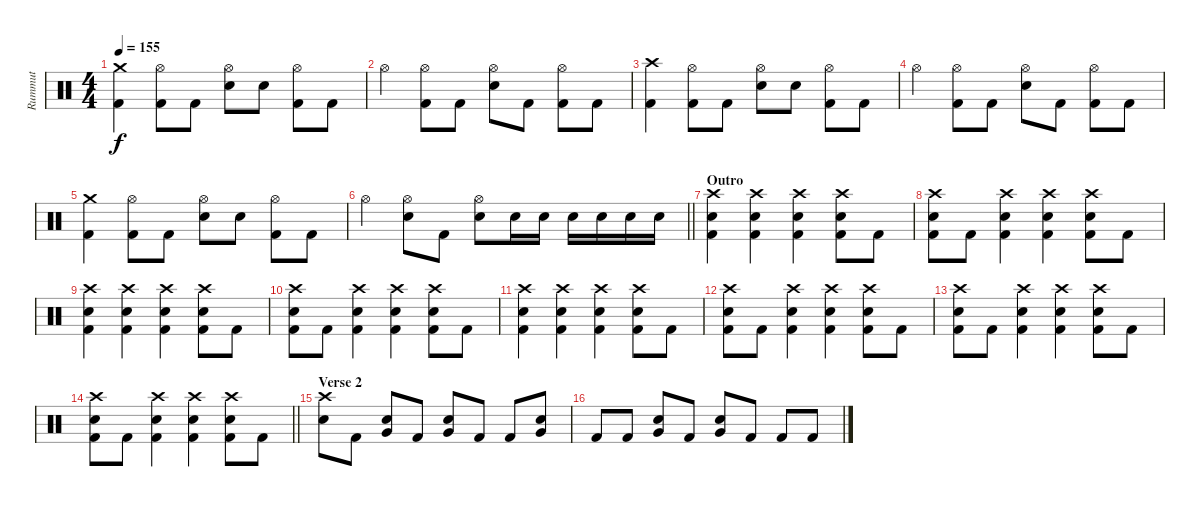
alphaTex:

\track ("Rummut" "Rummut") {instrument percussion}
\staff {score}
\articulation defaults
\ts (4 4)
\tempo 155
\clef neutral
\ks c
("Crash medium (hit)" "Kick (hit) 2").4{dy f} ("Hi-Hat (open)" "Kick (hit) 2").8 "Kick (hit) 2".8 ("Hi-Hat (open)" "Electric Snare (hit)").8 "Electric Snare (hit)".8 ("Hi-Hat (open)" "Kick (hit) 2").8 "Kick (hit) 2".8 |
"Hi-Hat (open)".4 ("Hi-Hat (open)" "Kick (hit) 2").8 "Kick (hit) 2".8 ("Hi-Hat (open)" "Electric Snare (hit)").8 "Kick (hit) 2".8 ("Hi-Hat (open)" "Kick (hit) 2").8 "Kick (hit) 2".8 |
("Crash high (hit)" "Kick (hit) 2").4 ("Hi-Hat (open)" "Kick (hit) 2").8 "Kick (hit) 2".8 ("Hi-Hat (open)" "Electric Snare (hit)").8 "Electric Snare (hit)".8 ("Hi-Hat (open)" "Kick (hit) 2").8 "Kick (hit) 2".8 |
"Hi-Hat (open)".4 ("Hi-Hat (open)" "Kick (hit) 2").8 "Kick (hit) 2".8 ("Hi-Hat (open)" "Electric Snare (hit)").8 "Kick (hit) 2".8 ("Hi-Hat (open)" "Kick (hit) 2").8 "Kick (hit) 2".8 |
("Crash medium (hit)" "Kick (hit) 2").4 ("Hi-Hat (open)" "Kick (hit) 2").8 "Kick (hit) 2".8 ("Hi-Hat (open)" "Electric Snare (hit)").8 "Electric Snare (hit)".8 ("Hi-Hat (open)" "Kick (hit) 2").8 "Kick (hit) 2".8 |
\barLineRight lightlight "Hi-Hat (open)".4
("Hi-Hat (open)" "Electric Snare (hit)").8 "Kick (hit) 2".8 ("Hi-Hat (open)" "Electric Snare (hit)").8 "Electric Snare (hit)".16 "Electric Snare (hit)".16 "Electric Snare (hit)".16 "Electric Snare (hit)".16 "Electric Snare (hit)".16 "Electric Snare (hit)".16 |
\section ("" "Outro")
("Crash high (hit)" "Electric Snare (hit)" "Kick (hit) 2").4 ("Crash high (hit)" "Electric Snare (hit)" "Kick (hit) 2").4 ("Crash high (hit)" "Electric Snare (hit)" "Kick (hit) 2").4 ("Crash high (hit)" "Electric Snare (hit)" "Kick (hit) 2").8 "Kick (hit) 2".8 |
("Crash high (hit)" "Electric Snare (hit)" "Kick (hit) 2").8 "Kick (hit) 2".8 ("Crash high (hit)" "Electric Snare (hit)" "Kick (hit) 2").4 ("Crash high (hit)" "Electric Snare (hit)" "Kick (hit) 2").4 ("Crash high (hit)" "Electric Snare (hit)" "Kick (hit) 2").8 "Kick (hit) 2".8 |
("Crash high (hit)" "Electric Snare (hit)" "Kick (hit) 2").4 ("Crash high (hit)" "Electric Snare (hit)" "Kick (hit) 2").4 ("Crash high (hit)" "Electric Snare (hit)" "Kick (hit) 2").4 ("Crash high (hit)" "Electric Snare (hit)" "Kick (hit) 2").8 "Kick (hit) 2".8 |
("Crash high (hit)" "Electric Snare (hit)" "Kick (hit) 2").8 "Kick (hit) 2".8 ("Crash high (hit)" "Electric Snare (hit)" "Kick (hit) 2").4 ("Crash high (hit)" "Electric Snare (hit)" "Kick (hit) 2").4 ("Crash high (hit)" "Electric Snare (hit)" "Kick (hit) 2").8 "Kick (hit) 2".8 |
("Crash high (hit)" "Electric Snare (hit)" "Kick (hit) 2").4 ("Crash high (hit)" "Electric Snare (hit)" "Kick (hit) 2").4 ("Crash high (hit)" "Electric Snare (hit)" "Kick (hit) 2").4 ("Crash high (hit)" "Electric Snare (hit)" "Kick (hit) 2").8 "Kick (hit) 2".8 |
("Crash high (hit)" "Electric Snare (hit)" "Kick (hit) 2").8 "Kick (hit) 2".8 ("Crash high (hit)" "Electric Snare (hit)" "Kick (hit) 2").4 ("Crash high (hit)" "Electric Snare (hit)" "Kick (hit) 2").4 ("Crash high (hit)" "Electric Snare (hit)" "Kick (hit) 2").8 "Kick (hit) 2".8 |
("Crash high (hit)" "Electric Snare (hit)" "Kick (hit) 2").8 "Kick (hit) 2".8 ("Crash high (hit)" "Electric Snare (hit)" "Kick (hit) 2").4 ("Crash high (hit)" "Electric Snare (hit)" "Kick (hit) 2").4 ("Crash high (hit)" "Electric Snare (hit)" "Kick (hit) 2").8 "Kick (hit) 2".8 |
\barLineRight lightlight
("Crash high (hit)" "Electric Snare (hit)" "Kick (hit) 2").8 "Kick (hit) 2".8 ("Crash high (hit)" "Electric Snare (hit)" "Kick (hit) 2").4 ("Crash high (hit)" "Electric Snare (hit)" "Kick (hit) 2").4 ("Crash high (hit)" "Electric Snare (hit)" "Kick (hit) 2").8 "Kick (hit) 2".8 |
\section ("" "Verse 2")
("Crash high (hit)" "Electric Snare (hit)").8 "Kick (hit) 2".8 ("Very Low Tom (hit)" "Electric Snare (hit)").8 "Kick (hit) 2".8 ("Very Low Tom (hit)" "Electric Snare (hit)").8 "Kick (hit) 2".8 "Kick (hit) 2".8 ("Very Low Tom (hit)" "Electric Snare (hit)").8 |
"Kick (hit) 2".8 "Kick (hit) 2".8 ("Very Low Tom (hit)" "Electric Snare (hit)").8 "Kick (hit) 2".8 ("Very Low Tom (hit)" "Electric Snare (hit)").8 "Kick (hit) 2".8 "Kick (hit) 2".8 "Kick (hit) 2".8
